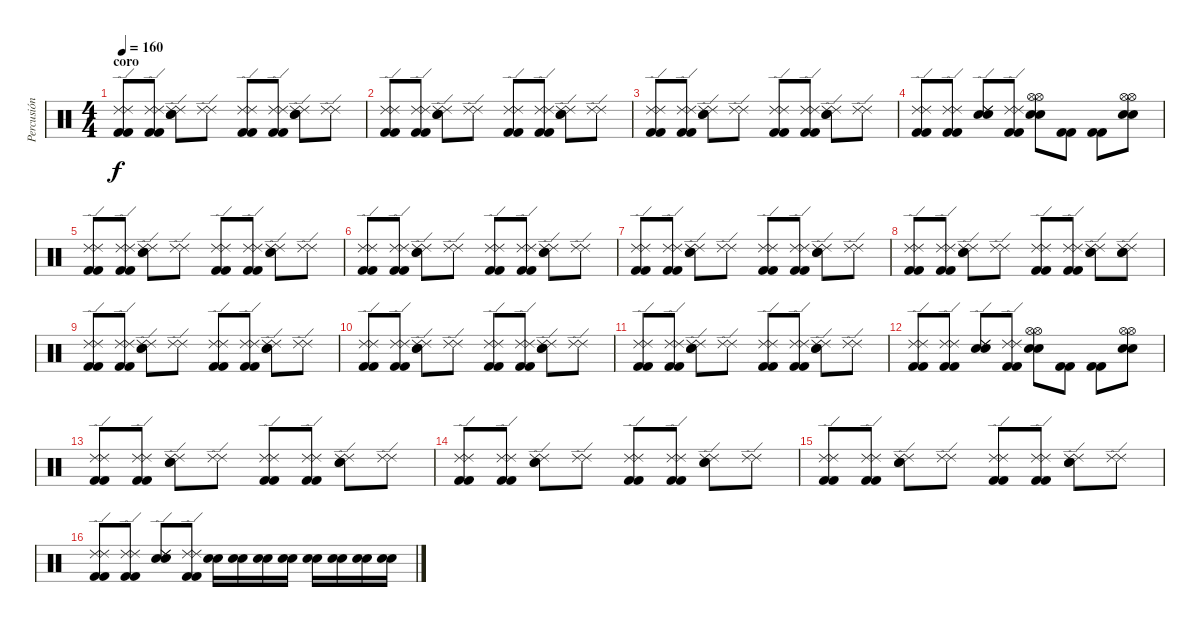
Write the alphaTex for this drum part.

\track ("Percusión" "Percusión") {instrument percussion}
\staff {score}
\articulation defaults
\ts (4 4)
\section ("" "coro")
\tempo 160
\clef neutral
\ks c
("Kick (hit) 2" "Kick (hit) 2" "Ride (edge) 2" "Ride (edge) 2").8{dy f} ("Kick (hit) 2" "Kick (hit) 2" "Ride (edge) 2" "Ride (edge) 2").8 ("Snare (hit) 2" "Snare (hit) 2" "Ride (edge) 2" "Ride (edge) 2").8 ("Ride (edge) 2" "Ride (edge) 2").8 ("Kick (hit) 2" "Kick (hit) 2" "Ride (edge) 2" "Ride (edge) 2").8 ("Kick (hit) 2" "Kick (hit) 2" "Ride (edge) 2" "Ride (edge) 2").8 ("Snare (hit) 2" "Snare (hit) 2" "Ride (edge) 2" "Ride (edge) 2").8 ("Ride (edge) 2" "Ride (edge) 2").8 |
("Kick (hit) 2" "Kick (hit) 2" "Ride (edge) 2" "Ride (edge) 2").8 ("Kick (hit) 2" "Kick (hit) 2" "Ride (edge) 2" "Ride (edge) 2").8 ("Snare (hit) 2" "Snare (hit) 2" "Ride (edge) 2" "Ride (edge) 2").8 ("Ride (edge) 2" "Ride (edge) 2").8 ("Kick (hit) 2" "Kick (hit) 2" "Ride (edge) 2" "Ride (edge) 2").8 ("Kick (hit) 2" "Kick (hit) 2" "Ride (edge) 2" "Ride (edge) 2").8 ("Snare (hit) 2" "Snare (hit) 2" "Ride (edge) 2" "Ride (edge) 2").8 ("Ride (edge) 2" "Ride (edge) 2").8 |
("Kick (hit) 2" "Kick (hit) 2" "Ride (edge) 2" "Ride (edge) 2").8 ("Kick (hit) 2" "Kick (hit) 2" "Ride (edge) 2" "Ride (edge) 2").8 ("Snare (hit) 2" "Snare (hit) 2" "Ride (edge) 2" "Ride (edge) 2").8 ("Ride (edge) 2" "Ride (edge) 2").8 ("Kick (hit) 2" "Kick (hit) 2" "Ride (edge) 2" "Ride (edge) 2").8 ("Kick (hit) 2" "Kick (hit) 2" "Ride (edge) 2" "Ride (edge) 2").8 ("Snare (hit) 2" "Snare (hit) 2" "Ride (edge) 2" "Ride (edge) 2").8 ("Ride (edge) 2" "Ride (edge) 2").8 |
("Kick (hit) 2" "Kick (hit) 2" "Ride (edge) 2" "Ride (edge) 2").8 ("Kick (hit) 2" "Kick (hit) 2" "Ride (edge) 2" "Ride (edge) 2").8 ("Snare (hit) 2" "Snare (hit) 2" "Ride (edge) 2" "Ride (edge) 2").8 ("Kick (hit) 2" "Kick (hit) 2" "Ride (edge) 2" "Ride (edge) 2").8 ("Snare (hit) 2" "Snare (hit) 2" "Hi-Hat (open)" "Hi-Hat (open)").8 ("Kick (hit) 2" "Kick (hit) 2").8 ("Kick (hit) 2" "Kick (hit) 2").8 ("Snare (hit) 2" "Snare (hit) 2" "Hi-Hat (open)" "Hi-Hat (open)").8 |
("Kick (hit) 2" "Kick (hit) 2" "Ride (edge) 2" "Ride (edge) 2").8 ("Kick (hit) 2" "Kick (hit) 2" "Ride (edge) 2" "Ride (edge) 2").8 ("Snare (hit) 2" "Snare (hit) 2" "Ride (edge) 2" "Ride (edge) 2").8 ("Ride (edge) 2" "Ride (edge) 2").8 ("Kick (hit) 2" "Kick (hit) 2" "Ride (edge) 2" "Ride (edge) 2").8 ("Kick (hit) 2" "Kick (hit) 2" "Ride (edge) 2" "Ride (edge) 2").8 ("Snare (hit) 2" "Snare (hit) 2" "Ride (edge) 2" "Ride (edge) 2").8 ("Ride (edge) 2" "Ride (edge) 2").8 |
("Kick (hit) 2" "Kick (hit) 2" "Ride (edge) 2" "Ride (edge) 2").8 ("Kick (hit) 2" "Kick (hit) 2" "Ride (edge) 2" "Ride (edge) 2").8 ("Snare (hit) 2" "Snare (hit) 2" "Ride (edge) 2" "Ride (edge) 2").8 ("Ride (edge) 2" "Ride (edge) 2").8 ("Kick (hit) 2" "Kick (hit) 2" "Ride (edge) 2" "Ride (edge) 2").8 ("Kick (hit) 2" "Kick (hit) 2" "Ride (edge) 2" "Ride (edge) 2").8 ("Snare (hit) 2" "Snare (hit) 2" "Ride (edge) 2" "Ride (edge) 2").8 ("Ride (edge) 2" "Ride (edge) 2").8 |
("Kick (hit) 2" "Kick (hit) 2" "Ride (edge) 2" "Ride (edge) 2").8 ("Kick (hit) 2" "Kick (hit) 2" "Ride (edge) 2" "Ride (edge) 2").8 ("Snare (hit) 2" "Snare (hit) 2" "Ride (edge) 2" "Ride (edge) 2").8 ("Ride (edge) 2" "Ride (edge) 2").8 ("Kick (hit) 2" "Kick (hit) 2" "Ride (edge) 2" "Ride (edge) 2").8 ("Kick (hit) 2" "Kick (hit) 2" "Ride (edge) 2" "Ride (edge) 2").8 ("Snare (hit) 2" "Snare (hit) 2" "Ride (edge) 2" "Ride (edge) 2").8 ("Ride (edge) 2" "Ride (edge) 2").8 |
("Kick (hit) 2" "Kick (hit) 2" "Ride (edge) 2" "Ride (edge) 2").8 ("Kick (hit) 2" "Kick (hit) 2" "Ride (edge) 2" "Ride (edge) 2").8 ("Snare (hit) 2" "Snare (hit) 2" "Ride (edge) 2" "Ride (edge) 2").8 ("Ride (edge) 2" "Ride (edge) 2").8 ("Kick (hit) 2" "Kick (hit) 2" "Ride (edge) 2" "Ride (edge) 2").8 ("Kick (hit) 2" "Kick (hit) 2" "Ride (edge) 2" "Ride (edge) 2").8 ("Snare (hit) 2" "Snare (hit) 2" "Ride (edge) 2" "Ride (edge) 2").8 ("Snare (hit) 2" "Snare (hit) 2" "Ride (edge) 2" "Ride (edge) 2").8 |
("Kick (hit) 2" "Kick (hit) 2" "Ride (edge) 2" "Ride (edge) 2").8 ("Kick (hit) 2" "Kick (hit) 2" "Ride (edge) 2" "Ride (edge) 2").8 ("Snare (hit) 2" "Snare (hit) 2" "Ride (edge) 2" "Ride (edge) 2").8 ("Ride (edge) 2" "Ride (edge) 2").8 ("Kick (hit) 2" "Kick (hit) 2" "Ride (edge) 2" "Ride (edge) 2").8 ("Kick (hit) 2" "Kick (hit) 2" "Ride (edge) 2" "Ride (edge) 2").8 ("Snare (hit) 2" "Snare (hit) 2" "Ride (edge) 2" "Ride (edge) 2").8 ("Ride (edge) 2" "Ride (edge) 2").8 |
("Kick (hit) 2" "Kick (hit) 2" "Ride (edge) 2" "Ride (edge) 2").8 ("Kick (hit) 2" "Kick (hit) 2" "Ride (edge) 2" "Ride (edge) 2").8 ("Snare (hit) 2" "Snare (hit) 2" "Ride (edge) 2" "Ride (edge) 2").8 ("Ride (edge) 2" "Ride (edge) 2").8 ("Kick (hit) 2" "Kick (hit) 2" "Ride (edge) 2" "Ride (edge) 2").8 ("Kick (hit) 2" "Kick (hit) 2" "Ride (edge) 2" "Ride (edge) 2").8 ("Snare (hit) 2" "Snare (hit) 2" "Ride (edge) 2" "Ride (edge) 2").8 ("Ride (edge) 2" "Ride (edge) 2").8 |
("Kick (hit) 2" "Kick (hit) 2" "Ride (edge) 2" "Ride (edge) 2").8 ("Kick (hit) 2" "Kick (hit) 2" "Ride (edge) 2" "Ride (edge) 2").8 ("Snare (hit) 2" "Snare (hit) 2" "Ride (edge) 2" "Ride (edge) 2").8 ("Ride (edge) 2" "Ride (edge) 2").8 ("Kick (hit) 2" "Kick (hit) 2" "Ride (edge) 2" "Ride (edge) 2").8 ("Kick (hit) 2" "Kick (hit) 2" "Ride (edge) 2" "Ride (edge) 2").8 ("Snare (hit) 2" "Snare (hit) 2" "Ride (edge) 2" "Ride (edge) 2").8 ("Ride (edge) 2" "Ride (edge) 2").8 |
("Kick (hit) 2" "Kick (hit) 2" "Ride (edge) 2" "Ride (edge) 2").8 ("Kick (hit) 2" "Kick (hit) 2" "Ride (edge) 2" "Ride (edge) 2").8 ("Snare (hit) 2" "Snare (hit) 2" "Ride (edge) 2" "Ride (edge) 2").8 ("Kick (hit) 2" "Kick (hit) 2" "Ride (edge) 2" "Ride (edge) 2").8 ("Snare (hit) 2" "Snare (hit) 2" "Hi-Hat (open)" "Hi-Hat (open)").8 ("Kick (hit) 2" "Kick (hit) 2").8 ("Kick (hit) 2" "Kick (hit) 2").8 ("Snare (hit) 2" "Snare (hit) 2" "Hi-Hat (open)" "Hi-Hat (open)").8 |
("Kick (hit) 2" "Kick (hit) 2" "Ride (edge) 2" "Ride (edge) 2").8 ("Kick (hit) 2" "Kick (hit) 2" "Ride (edge) 2" "Ride (edge) 2").8 ("Snare (hit) 2" "Snare (hit) 2" "Ride (edge) 2" "Ride (edge) 2").8 ("Ride (edge) 2" "Ride (edge) 2").8 ("Kick (hit) 2" "Kick (hit) 2" "Ride (edge) 2" "Ride (edge) 2").8 ("Kick (hit) 2" "Kick (hit) 2" "Ride (edge) 2" "Ride (edge) 2").8 ("Snare (hit) 2" "Snare (hit) 2" "Ride (edge) 2" "Ride (edge) 2").8 ("Ride (edge) 2" "Ride (edge) 2").8 |
("Kick (hit) 2" "Kick (hit) 2" "Ride (edge) 2" "Ride (edge) 2").8 ("Kick (hit) 2" "Kick (hit) 2" "Ride (edge) 2" "Ride (edge) 2").8 ("Snare (hit) 2" "Snare (hit) 2" "Ride (edge) 2" "Ride (edge) 2").8 ("Ride (edge) 2" "Ride (edge) 2").8 ("Kick (hit) 2" "Kick (hit) 2" "Ride (edge) 2" "Ride (edge) 2").8 ("Kick (hit) 2" "Kick (hit) 2" "Ride (edge) 2" "Ride (edge) 2").8 ("Snare (hit) 2" "Snare (hit) 2" "Ride (edge) 2" "Ride (edge) 2").8 ("Ride (edge) 2" "Ride (edge) 2").8 |
("Kick (hit) 2" "Kick (hit) 2" "Ride (edge) 2" "Ride (edge) 2").8 ("Kick (hit) 2" "Kick (hit) 2" "Ride (edge) 2" "Ride (edge) 2").8 ("Snare (hit) 2" "Snare (hit) 2" "Ride (edge) 2" "Ride (edge) 2").8 ("Ride (edge) 2" "Ride (edge) 2").8 ("Kick (hit) 2" "Kick (hit) 2" "Ride (edge) 2" "Ride (edge) 2").8 ("Kick (hit) 2" "Kick (hit) 2" "Ride (edge) 2" "Ride (edge) 2").8 ("Snare (hit) 2" "Snare (hit) 2" "Ride (edge) 2" "Ride (edge) 2").8 ("Ride (edge) 2" "Ride (edge) 2").8 |
("Kick (hit) 2" "Kick (hit) 2" "Ride (edge) 2" "Ride (edge) 2").8 ("Kick (hit) 2" "Kick (hit) 2" "Ride (edge) 2" "Ride (edge) 2").8 ("Snare (hit) 2" "Snare (hit) 2" "Ride (edge) 2" "Ride (edge) 2").8 ("Kick (hit) 2" "Kick (hit) 2" "Ride (edge) 2" "Ride (edge) 2").8 ("Snare (hit) 2" "Snare (hit) 2").16 ("Snare (hit) 2" "Snare (hit) 2").16 ("Snare (hit) 2" "Snare (hit) 2").16 ("Snare (hit) 2" "Snare (hit) 2").16 ("Snare (hit) 2" "Snare (hit) 2").16 ("Snare (hit) 2" "Snare (hit) 2").16 ("Snare (hit) 2" "Snare (hit) 2").16 ("Snare (hit) 2" "Snare (hit) 2").16
